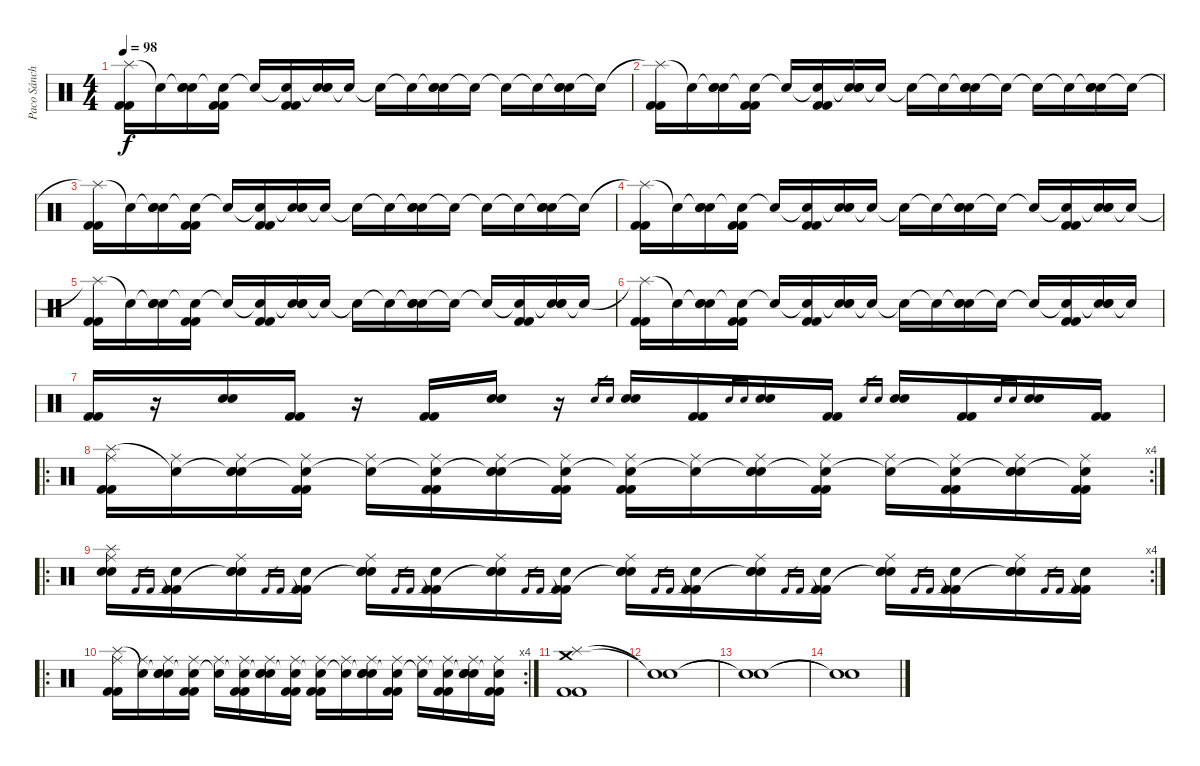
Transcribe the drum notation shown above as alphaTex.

\track ("Paco Sánchez" "Paco Sánch") {instrument percussion}
\staff {score}
\articulation defaults
\ts (4 4)
\tempo 98
\clef neutral
\ks c
("Splash (hit)"{t} "Kick (hit) 2" "Kick (hit) 2").16{dy f} "Snare (hit)"{t}.16 ("Snare (hit)"{t} "Electric Snare (hit)" "Electric Snare (hit)").16 ("Snare (hit)"{t} "Kick (hit) 2" "Kick (hit) 2").16 "Snare (hit)"{t}.16 ("Snare (hit)"{t} "Kick (hit) 2" "Kick (hit) 2").16 ("Snare (hit)"{t} "Electric Snare (hit)" "Electric Snare (hit)").16 "Snare (hit)"{t}.16 "Snare (hit)"{t}.16 "Snare (hit)"{t}.16 ("Snare (hit)"{t} "Electric Snare (hit)" "Electric Snare (hit)").16 "Snare (hit)"{t}.16 "Snare (hit)"{t}.16 "Snare (hit)"{t}.16 ("Snare (hit)"{t} "Electric Snare (hit)" "Electric Snare (hit)").16 "Snare (hit)"{t}.16 |
("Splash (hit)"{t} "Kick (hit) 2" "Kick (hit) 2").16 "Snare (hit)"{t}.16 ("Snare (hit)"{t} "Electric Snare (hit)" "Electric Snare (hit)").16 ("Snare (hit)"{t} "Kick (hit) 2" "Kick (hit) 2").16 "Snare (hit)"{t}.16 ("Snare (hit)"{t} "Kick (hit) 2" "Kick (hit) 2").16 ("Snare (hit)"{t} "Electric Snare (hit)" "Electric Snare (hit)").16 "Snare (hit)"{t}.16 "Snare (hit)"{t}.16 "Snare (hit)"{t}.16 ("Snare (hit)"{t} "Electric Snare (hit)" "Electric Snare (hit)").16 "Snare (hit)"{t}.16 "Snare (hit)"{t}.16 "Snare (hit)"{t}.16 ("Snare (hit)"{t} "Electric Snare (hit)" "Electric Snare (hit)").16 "Snare (hit)"{t}.16 |
("Splash (hit)"{t} "Kick (hit) 2" "Kick (hit) 2").16 "Snare (hit)"{t}.16 ("Snare (hit)"{t} "Electric Snare (hit)" "Electric Snare (hit)").16 ("Snare (hit)"{t} "Kick (hit) 2" "Kick (hit) 2").16 "Snare (hit)"{t}.16 ("Snare (hit)"{t} "Kick (hit) 2" "Kick (hit) 2").16 ("Snare (hit)"{t} "Electric Snare (hit)" "Electric Snare (hit)").16 "Snare (hit)"{t}.16 "Snare (hit)"{t}.16 "Snare (hit)"{t}.16 ("Snare (hit)"{t} "Electric Snare (hit)" "Electric Snare (hit)").16 "Snare (hit)"{t}.16 "Snare (hit)"{t}.16 "Snare (hit)"{t}.16 ("Snare (hit)"{t} "Electric Snare (hit)" "Electric Snare (hit)").16 "Snare (hit)"{t}.16 |
("Splash (hit)"{t} "Kick (hit) 2" "Kick (hit) 2").16 "Snare (hit)"{t}.16 ("Snare (hit)"{t} "Electric Snare (hit)" "Electric Snare (hit)").16 ("Snare (hit)"{t} "Kick (hit) 2" "Kick (hit) 2").16 "Snare (hit)"{t}.16 ("Snare (hit)"{t} "Kick (hit) 2" "Kick (hit) 2").16 ("Snare (hit)"{t} "Electric Snare (hit)" "Electric Snare (hit)").16 "Snare (hit)"{t}.16 "Snare (hit)"{t}.16 "Snare (hit)"{t}.16 ("Snare (hit)"{t} "Electric Snare (hit)" "Electric Snare (hit)").16 "Snare (hit)"{t}.16 "Snare (hit)"{t}.16 ("Snare (hit)"{t} "Kick (hit) 2" "Kick (hit) 2").16 ("Snare (hit)"{t} "Electric Snare (hit)" "Electric Snare (hit)").16 "Snare (hit)"{t}.16 |
("Splash (hit)"{t} "Kick (hit) 2" "Kick (hit) 2").16 "Snare (hit)"{t}.16 ("Snare (hit)"{t} "Electric Snare (hit)" "Electric Snare (hit)").16 ("Snare (hit)"{t} "Kick (hit) 2" "Kick (hit) 2").16 "Snare (hit)"{t}.16 ("Snare (hit)"{t} "Kick (hit) 2" "Kick (hit) 2").16 ("Snare (hit)"{t} "Electric Snare (hit)" "Electric Snare (hit)").16 "Snare (hit)"{t}.16 "Snare (hit)"{t}.16 "Snare (hit)"{t}.16 ("Snare (hit)"{t} "Electric Snare (hit)" "Electric Snare (hit)").16 "Snare (hit)"{t}.16 "Snare (hit)"{t}.16 ("Snare (hit)"{t} "Kick (hit) 2" "Kick (hit) 2").16 ("Snare (hit)"{t} "Electric Snare (hit)" "Electric Snare (hit)").16 "Snare (hit)"{t}.16 |
("Splash (hit)"{t} "Kick (hit) 2" "Kick (hit) 2").16 "Snare (hit)"{t}.16 ("Snare (hit)"{t} "Electric Snare (hit)" "Electric Snare (hit)").16 ("Snare (hit)"{t} "Kick (hit) 2" "Kick (hit) 2").16 "Snare (hit)"{t}.16 ("Snare (hit)"{t} "Kick (hit) 2" "Kick (hit) 2").16 ("Snare (hit)"{t} "Electric Snare (hit)" "Electric Snare (hit)").16 "Snare (hit)"{t}.16 "Snare (hit)"{t}.16 "Snare (hit)"{t}.16 ("Snare (hit)"{t} "Electric Snare (hit)" "Electric Snare (hit)").16 "Snare (hit)"{t}.16 "Snare (hit)"{t}.16 ("Snare (hit)"{t} "Kick (hit) 2" "Kick (hit) 2").16 ("Snare (hit)"{t} "Electric Snare (hit)" "Electric Snare (hit)").16 "Snare (hit)"{t}.16 |
("Kick (hit) 2" "Kick (hit) 2").16 r.16 ("Electric Snare (hit)" "Electric Snare (hit)").16 ("Kick (hit) 2" "Kick (hit) 2").16 r.16 ("Kick (hit) 2" "Kick (hit) 2").16 ("Electric Snare (hit)" "Electric Snare (hit)").16 r.16 "Electric Snare (hit)".16{gr} "Electric Snare (hit)".16{gr} ("Electric Snare (hit)" "Electric Snare (hit)").16 ("Kick (hit) 2" "Kick (hit) 2").16 "Electric Snare (hit)".16{gr} "Electric Snare (hit)".16{gr} ("Electric Snare (hit)" "Electric Snare (hit)").16 ("Kick (hit) 2" "Kick (hit) 2").16 "Electric Snare (hit)".16{gr} "Electric Snare (hit)".16{gr} ("Electric Snare (hit)" "Electric Snare (hit)").16 ("Kick (hit) 2" "Kick (hit) 2").16 "Electric Snare (hit)".16{gr} "Electric Snare (hit)".16{gr} ("Electric Snare (hit)" "Electric Snare (hit)").16 ("Kick (hit) 2" "Kick (hit) 2").16 |
\ro
\rc 4
("Ride (middle)" "Splash (hit)" "Kick (hit) 2" "Kick (hit) 2").16 ("Ride (middle)" "Snare (hit)"{t}).16 ("Ride (middle)" "Snare (hit)"{t} "Electric Snare (hit)" "Electric Snare (hit)").16 ("Ride (middle)" "Snare (hit)"{t} "Kick (hit) 2" "Kick (hit) 2").16 ("Ride (middle)" "Snare (hit)"{t}).16 ("Ride (middle)" "Snare (hit)"{t} "Kick (hit) 2" "Kick (hit) 2").16 ("Ride (middle)" "Snare (hit)"{t} "Electric Snare (hit)" "Electric Snare (hit)").16 ("Ride (middle)" "Snare (hit)"{t} "Kick (hit) 2" "Kick (hit) 2").16 ("Ride (middle)" "Snare (hit)"{t} "Kick (hit) 2" "Kick (hit) 2").16 ("Ride (middle)" "Snare (hit)"{t}).16 ("Ride (middle)" "Snare (hit)"{t} "Electric Snare (hit)" "Electric Snare (hit)").16 ("Ride (middle)" "Snare (hit)"{t} "Kick (hit) 2" "Kick (hit) 2").16 ("Ride (middle)" "Snare (hit)"{t}).16 ("Ride (middle)" "Snare (hit)"{t} "Kick (hit) 2" "Kick (hit) 2").16 ("Ride (middle)" "Snare (hit)"{t} "Electric Snare (hit)" "Electric Snare (hit)").16 ("Ride (middle)" "Snare (hit)"{t} "Kick (hit) 2" "Kick (hit) 2").16 |
\ro
\rc 4
("Ride (middle)" "Splash (hit)" "Electric Snare (hit)" "Electric Snare (hit)").16 "Kick (hit) 2".16{gr} "Kick (hit) 2".16{gr} ("Snare (hit)"{t} "Kick (hit) 2" "Kick (hit) 2").16 ("Ride (middle)" "Snare (hit)"{t} "Electric Snare (hit)" "Electric Snare (hit)").16 "Kick (hit) 2".16{gr} "Kick (hit) 2".16{gr} ("Snare (hit)"{t} "Kick (hit) 2" "Kick (hit) 2").16 ("Ride (middle)" "Snare (hit)"{t} "Electric Snare (hit)" "Electric Snare (hit)").16 "Kick (hit) 2".16{gr} "Kick (hit) 2".16{gr} ("Snare (hit)"{t} "Kick (hit) 2" "Kick (hit) 2").16 ("Ride (middle)" "Snare (hit)"{t} "Electric Snare (hit)" "Electric Snare (hit)").16 "Kick (hit) 2".16{gr} "Kick (hit) 2".16{gr} ("Snare (hit)"{t} "Kick (hit) 2" "Kick (hit) 2").16 ("Ride (middle)" "Snare (hit)"{t} "Electric Snare (hit)" "Electric Snare (hit)").16 "Kick (hit) 2".16{gr} "Kick (hit) 2".16{gr} ("Snare (hit)"{t} "Kick (hit) 2" "Kick (hit) 2").16 ("Ride (middle)" "Snare (hit)"{t} "Electric Snare (hit)" "Electric Snare (hit)").16 "Kick (hit) 2".16{gr} "Kick (hit) 2".16{gr} ("Snare (hit)"{t} "Kick (hit) 2" "Kick (hit) 2").16 ("Ride (middle)" "Snare (hit)"{t} "Electric Snare (hit)" "Electric Snare (hit)").16 "Kick (hit) 2".16{gr} "Kick (hit) 2".16{gr} ("Snare (hit)"{t} "Kick (hit) 2" "Kick (hit) 2").16 ("Ride (middle)" "Snare (hit)"{t} "Electric Snare (hit)" "Electric Snare (hit)").16 "Kick (hit) 2".16{gr} "Kick (hit) 2".16{gr} ("Snare (hit)"{t} "Kick (hit) 2" "Kick (hit) 2").16 |
\ro
\rc 4
("Ride (middle)" "Splash (hit)" "Kick (hit) 2" "Kick (hit) 2").16 ("Ride (middle)" "Snare (hit)"{t}).16 ("Ride (middle)" "Snare (hit)"{t} "Electric Snare (hit)" "Electric Snare (hit)").16 ("Ride (middle)" "Snare (hit)"{t} "Kick (hit) 2" "Kick (hit) 2").16 ("Ride (middle)" "Snare (hit)"{t}).16 ("Ride (middle)" "Snare (hit)"{t} "Kick (hit) 2" "Kick (hit) 2").16 ("Ride (middle)" "Snare (hit)"{t} "Electric Snare (hit)" "Electric Snare (hit)").16 ("Ride (middle)" "Snare (hit)"{t} "Kick (hit) 2" "Kick (hit) 2").16 ("Ride (middle)" "Snare (hit)"{t} "Kick (hit) 2" "Kick (hit) 2").16 ("Ride (middle)" "Snare (hit)"{t}).16 ("Ride (middle)" "Snare (hit)"{t} "Electric Snare (hit)" "Electric Snare (hit)").16 ("Ride (middle)" "Snare (hit)"{t} "Kick (hit) 2" "Kick (hit) 2").16 ("Ride (middle)" "Snare (hit)"{t}).16 ("Ride (middle)" "Snare (hit)"{t} "Kick (hit) 2" "Kick (hit) 2").16 ("Ride (middle)" "Snare (hit)"{t} "Electric Snare (hit)" "Electric Snare (hit)").16 ("Ride (middle)" "Snare (hit)"{t} "Kick (hit) 2" "Kick (hit) 2").16 |
("Splash (hit)" "Crash medium (hit)" "Kick (hit) 2" "Kick (hit) 2").1 |
("Snare (hit)"{t} "Snare (hit)"{t}).1 |
("Snare (hit)"{t} "Snare (hit)"{t}).1 |
("Snare (hit)"{t} "Snare (hit)"{t}).1
